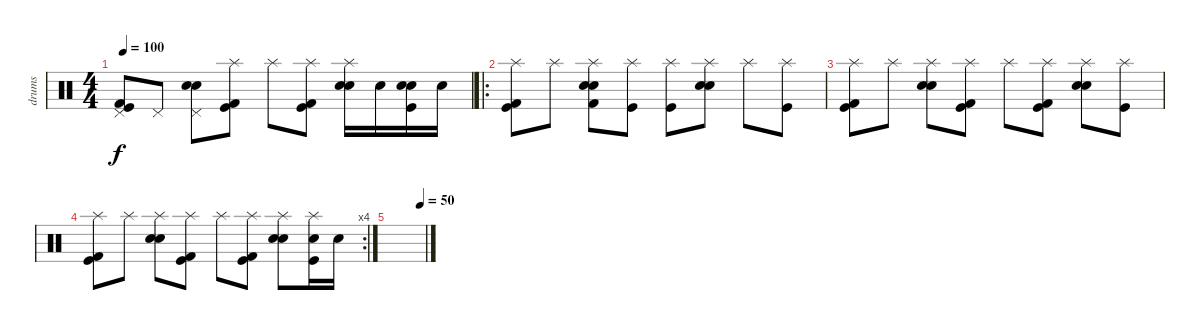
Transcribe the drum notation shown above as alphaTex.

\track ("drums" "drums") {instrument percussion}
\staff {score}
\articulation defaults
\ts (4 4)
\tempo 100
\clef neutral
\ks c
("Pedal Hi-Hat (hit)" "Kick (hit) 2" "Kick (hit)").8{dy f} "Pedal Hi-Hat (hit)".8 ("Pedal Hi-Hat (hit)" "Electric Snare (hit)" "Snare (hit) 2").8 ("Splash (hit)" "Kick (hit) 2" "Kick (hit)").8 "Splash (hit)".8 ("Splash (hit)" "Kick (hit) 2" "Kick (hit)").8 ("Splash (hit)" "Electric Snare (hit)" "Snare (hit) 2").16 "Snare (hit) 2".16 ("Electric Snare (hit)" "Snare (hit) 2" "Kick (hit)").16 "Snare (hit) 2".16 |
\ro
("Splash (hit)" "Kick (hit) 2" "Kick (hit)").8 "Splash (hit)".8 ("Splash (hit)" "Electric Snare (hit)" "Snare (hit) 2" "Kick (hit) 2").8 ("Splash (hit)" "Kick (hit)").8 ("Splash (hit)" "Kick (hit)").8 ("Splash (hit)" "Electric Snare (hit)" "Snare (hit) 2").8 "Splash (hit)".8 ("Splash (hit)" "Kick (hit)").8 |
("Splash (hit)" "Kick (hit) 2" "Kick (hit)").8 "Splash (hit)".8 ("Splash (hit)" "Electric Snare (hit)" "Snare (hit) 2").8 ("Splash (hit)" "Kick (hit) 2" "Kick (hit)").8 "Splash (hit)".8 ("Splash (hit)" "Kick (hit) 2" "Kick (hit)").8 ("Splash (hit)" "Electric Snare (hit)" "Snare (hit) 2").8 ("Splash (hit)" "Kick (hit)").8 |
\rc 4
("Splash (hit)" "Kick (hit) 2" "Kick (hit)").8 "Splash (hit)".8 ("Splash (hit)" "Electric Snare (hit)" "Snare (hit) 2").8 ("Splash (hit)" "Kick (hit) 2" "Kick (hit)").8 "Splash (hit)".8 ("Splash (hit)" "Kick (hit) 2" "Kick (hit)").8 ("Splash (hit)" "Electric Snare (hit)" "Snare (hit) 2").8 ("Splash (hit)" "Snare (hit) 2" "Kick (hit)").16 "Snare (hit) 2".16 |
\tempo (50 0.875)
